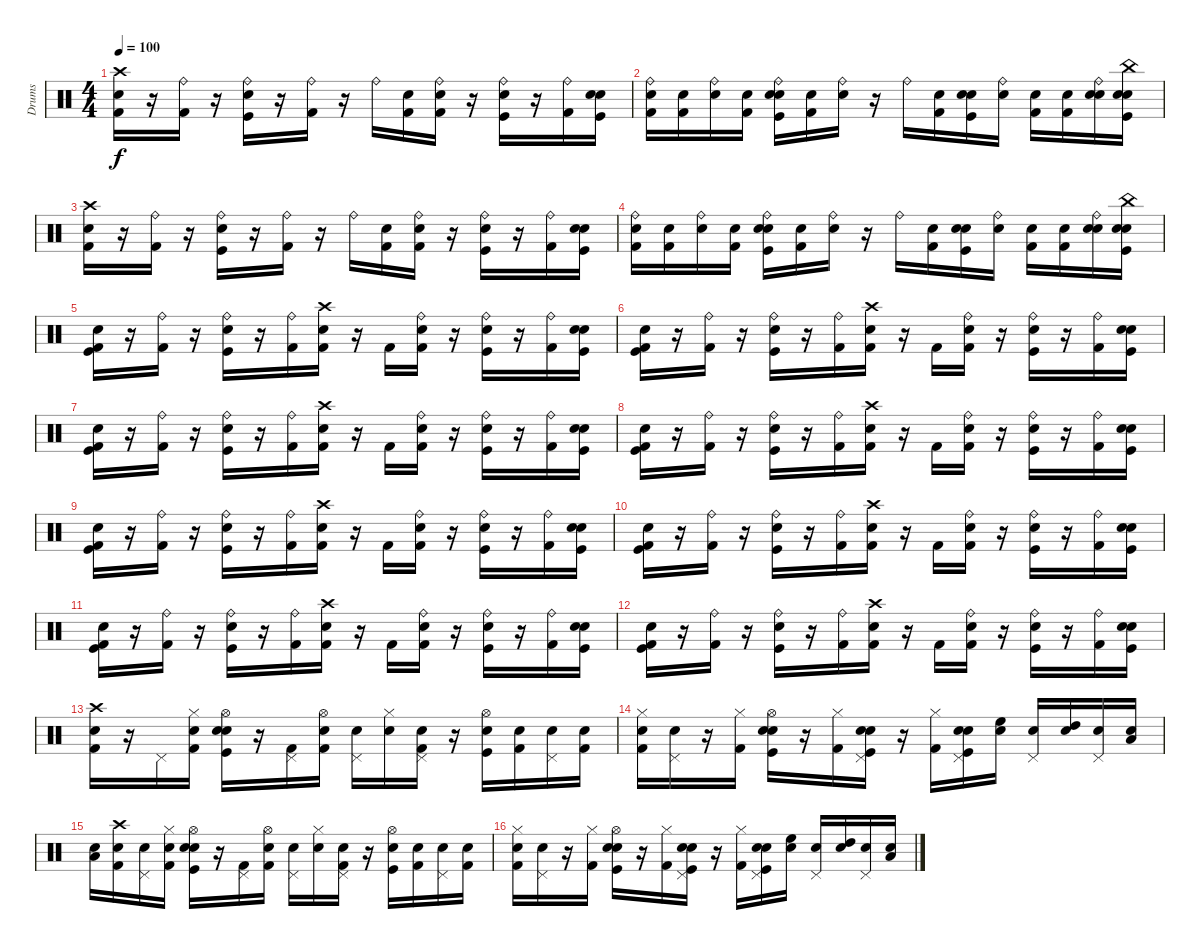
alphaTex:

\track ("Drums" "Drums") {instrument percussion}
\staff {score}
\articulation defaults
\ts (4 4)
\tempo 100
\clef neutral
\ks c
("Snare (hit)" "Kick (hit) 2" "Crash high (hit)").16{dy f} r.16 ("Ride (bell)" "Kick (hit) 2").16 r.16 ("Ride (bell)" "Kick (hit)" "Electric Snare (hit)").16 r.16 ("Ride (bell)" "Kick (hit) 2").16 r.16 "Ride (bell)".16 ("Snare (hit)" "Kick (hit) 2").16 ("Snare (hit)" "Kick (hit) 2" "Ride (bell)").16 r.16 ("Ride (bell)" "Kick (hit)" "Electric Snare (hit)").16 r.16 ("Ride (bell)" "Kick (hit) 2").16 ("Snare (hit)" "Kick (hit)" "Electric Snare (hit)").16 |
("Snare (hit)" "Kick (hit) 2" "Ride (bell)").16 ("Snare (hit)" "Kick (hit) 2").16 ("Snare (hit)" "Ride (bell)").16 ("Snare (hit)" "Kick (hit) 2").16 ("Snare (hit)" "Ride (bell)" "Kick (hit)" "Electric Snare (hit)").16 ("Snare (hit)" "Kick (hit) 2").16 ("Snare (hit)" "Ride (bell)").16 r.16 "Ride (bell)".16 ("Snare (hit)" "Kick (hit) 2").16 ("Snare (hit)" "Kick (hit)" "Electric Snare (hit)").16 ("Snare (hit)" "Ride (bell)").16 ("Snare (hit)" "Kick (hit) 2").16 ("Snare (hit)" "Kick (hit) 2").16 ("Snare (hit)" "Snare (hit) 2" "Ride (bell)").16 ("Snare (hit)" "Kick (hit)" "Electric Snare (hit)" "China (hit)").16 |
("Snare (hit)" "Kick (hit) 2" "Crash high (hit)").16 r.16 ("Ride (bell)" "Kick (hit) 2").16 r.16 ("Ride (bell)" "Kick (hit)" "Electric Snare (hit)").16 r.16 ("Ride (bell)" "Kick (hit) 2").16 r.16 "Ride (bell)".16 ("Snare (hit)" "Kick (hit) 2").16 ("Snare (hit)" "Kick (hit) 2" "Ride (bell)").16 r.16 ("Ride (bell)" "Kick (hit)" "Electric Snare (hit)").16 r.16 ("Ride (bell)" "Kick (hit) 2").16 ("Snare (hit)" "Kick (hit)" "Electric Snare (hit)").16 |
("Snare (hit)" "Kick (hit) 2" "Ride (bell)").16 ("Snare (hit)" "Kick (hit) 2").16 ("Snare (hit)" "Ride (bell)").16 ("Snare (hit)" "Kick (hit) 2").16 ("Snare (hit)" "Ride (bell)" "Kick (hit)" "Electric Snare (hit)").16 ("Snare (hit)" "Kick (hit) 2").16 ("Snare (hit)" "Ride (bell)").16 r.16 "Ride (bell)".16 ("Snare (hit)" "Kick (hit) 2").16 ("Snare (hit)" "Kick (hit)" "Electric Snare (hit)").16 ("Snare (hit)" "Ride (bell)").16 ("Snare (hit)" "Kick (hit) 2").16 ("Snare (hit)" "Kick (hit) 2").16 ("Snare (hit)" "Snare (hit) 2" "Ride (bell)").16 ("Snare (hit)" "Kick (hit)" "Electric Snare (hit)" "China (hit)").16 |
("Snare (hit)" "Kick (hit)" "Kick (hit) 2").16 r.16 ("Ride (bell)" "Kick (hit) 2").16 r.16 ("Ride (bell)" "Kick (hit)" "Electric Snare (hit)").16 r.16 ("Ride (bell)" "Kick (hit) 2").16 ("Snare (hit)" "Kick (hit) 2" "Crash high (hit)").16 r.16 "Kick (hit) 2".16 ("Snare (hit)" "Kick (hit) 2" "Ride (bell)").16 r.16 ("Ride (bell)" "Kick (hit)" "Electric Snare (hit)").16 r.16 ("Ride (bell)" "Kick (hit) 2").16 ("Snare (hit)" "Kick (hit)" "Electric Snare (hit)").16 |
("Snare (hit)" "Kick (hit)" "Kick (hit) 2").16 r.16 ("Ride (bell)" "Kick (hit) 2").16 r.16 ("Ride (bell)" "Kick (hit)" "Electric Snare (hit)").16 r.16 ("Ride (bell)" "Kick (hit) 2").16 ("Snare (hit)" "Kick (hit) 2" "Crash high (hit)").16 r.16 "Kick (hit) 2".16 ("Snare (hit)" "Kick (hit) 2" "Ride (bell)").16 r.16 ("Ride (bell)" "Kick (hit)" "Electric Snare (hit)").16 r.16 ("Ride (bell)" "Kick (hit) 2").16 ("Snare (hit)" "Kick (hit)" "Electric Snare (hit)").16 |
("Snare (hit)" "Kick (hit)" "Kick (hit) 2").16 r.16 ("Ride (bell)" "Kick (hit) 2").16 r.16 ("Ride (bell)" "Kick (hit)" "Electric Snare (hit)").16 r.16 ("Ride (bell)" "Kick (hit) 2").16 ("Snare (hit)" "Kick (hit) 2" "Crash high (hit)").16 r.16 "Kick (hit) 2".16 ("Snare (hit)" "Kick (hit) 2" "Ride (bell)").16 r.16 ("Ride (bell)" "Kick (hit)" "Electric Snare (hit)").16 r.16 ("Ride (bell)" "Kick (hit) 2").16 ("Snare (hit)" "Kick (hit)" "Electric Snare (hit)").16 |
("Snare (hit)" "Kick (hit)" "Kick (hit) 2").16 r.16 ("Ride (bell)" "Kick (hit) 2").16 r.16 ("Ride (bell)" "Kick (hit)" "Electric Snare (hit)").16 r.16 ("Ride (bell)" "Kick (hit) 2").16 ("Snare (hit)" "Kick (hit) 2" "Crash high (hit)").16 r.16 "Kick (hit) 2".16 ("Snare (hit)" "Kick (hit) 2" "Ride (bell)").16 r.16 ("Ride (bell)" "Kick (hit)" "Electric Snare (hit)").16 r.16 ("Ride (bell)" "Kick (hit) 2").16 ("Snare (hit)" "Kick (hit)" "Electric Snare (hit)").16 |
("Snare (hit)" "Kick (hit)" "Kick (hit) 2").16 r.16 ("Ride (bell)" "Kick (hit) 2").16 r.16 ("Ride (bell)" "Kick (hit)" "Electric Snare (hit)").16 r.16 ("Ride (bell)" "Kick (hit) 2").16 ("Snare (hit)" "Kick (hit) 2" "Crash high (hit)").16 r.16 "Kick (hit) 2".16 ("Snare (hit)" "Kick (hit) 2" "Ride (bell)").16 r.16 ("Ride (bell)" "Kick (hit)" "Electric Snare (hit)").16 r.16 ("Ride (bell)" "Kick (hit) 2").16 ("Snare (hit)" "Kick (hit)" "Electric Snare (hit)").16 |
("Snare (hit)" "Kick (hit)" "Kick (hit) 2").16 r.16 ("Ride (bell)" "Kick (hit) 2").16 r.16 ("Ride (bell)" "Kick (hit)" "Electric Snare (hit)").16 r.16 ("Ride (bell)" "Kick (hit) 2").16 ("Snare (hit)" "Kick (hit) 2" "Crash high (hit)").16 r.16 "Kick (hit) 2".16 ("Snare (hit)" "Kick (hit) 2" "Ride (bell)").16 r.16 ("Ride (bell)" "Kick (hit)" "Electric Snare (hit)").16 r.16 ("Ride (bell)" "Kick (hit) 2").16 ("Snare (hit)" "Kick (hit)" "Electric Snare (hit)").16 |
("Snare (hit)" "Kick (hit)" "Kick (hit) 2").16 r.16 ("Ride (bell)" "Kick (hit) 2").16 r.16 ("Ride (bell)" "Kick (hit)" "Electric Snare (hit)").16 r.16 ("Ride (bell)" "Kick (hit) 2").16 ("Snare (hit)" "Kick (hit) 2" "Crash high (hit)").16 r.16 "Kick (hit) 2".16 ("Snare (hit)" "Kick (hit) 2" "Ride (bell)").16 r.16 ("Ride (bell)" "Kick (hit)" "Electric Snare (hit)").16 r.16 ("Ride (bell)" "Kick (hit) 2").16 ("Snare (hit)" "Kick (hit)" "Electric Snare (hit)").16 |
("Snare (hit)" "Kick (hit)" "Kick (hit) 2").16 r.16 ("Ride (bell)" "Kick (hit) 2").16 r.16 ("Ride (bell)" "Kick (hit)" "Electric Snare (hit)").16 r.16 ("Ride (bell)" "Kick (hit) 2").16 ("Snare (hit)" "Kick (hit) 2" "Crash high (hit)").16 r.16 "Kick (hit) 2".16 ("Snare (hit)" "Kick (hit) 2" "Ride (bell)").16 r.16 ("Ride (bell)" "Kick (hit)" "Electric Snare (hit)").16 r.16 ("Ride (bell)" "Kick (hit) 2").16 ("Snare (hit)" "Kick (hit)" "Electric Snare (hit)").16 |
("Snare (hit)" "Crash high (hit)" "Kick (hit) 2").16 r.16 "Pedal Hi-Hat (hit)".16 ("Snare (hit)" "Kick (hit) 2" "Hi-Hat (closed)").16 ("Snare (hit)" "Kick (hit)" "Electric Snare (hit)" "Hi-Hat (open)").16 r.16 ("Kick (hit) 2" "Pedal Hi-Hat (hit)").16 ("Snare (hit)" "Kick (hit) 2" "Hi-Hat (open)").16 ("Snare (hit)" "Pedal Hi-Hat (hit)").16 ("Snare (hit)" "Hi-Hat (closed)").16 ("Snare (hit)" "Kick (hit) 2" "Pedal Hi-Hat (hit)").16 r.16 ("Hi-Hat (open)" "Kick (hit)" "Electric Snare (hit)").16 ("Snare (hit)" "Kick (hit) 2").16 ("Snare (hit)" "Pedal Hi-Hat (hit)").16 ("Snare (hit)" "Kick (hit) 2").16 |
("Snare (hit)" "Hi-Hat (closed)" "Kick (hit) 2").16 ("Snare (hit)" "Pedal Hi-Hat (hit)").16 r.16 ("Kick (hit) 2" "Hi-Hat (closed)").16 ("Snare (hit)" "Hi-Hat (open)" "Kick (hit)" "Electric Snare (hit)").16 r.16 ("Hi-Hat (closed)" "Kick (hit) 2").16 ("Snare (hit)" "Kick (hit)" "Electric Snare (hit)" "Pedal Hi-Hat (hit)").16 r.16 ("Hi-Hat (closed)" "Kick (hit) 2").16 ("Snare (hit)" "Pedal Hi-Hat (hit)" "Kick (hit)" "Electric Snare (hit)").16 ("Snare (hit)" "High Floor Tom (hit)").16 ("Snare (hit)" "Pedal Hi-Hat (hit)").16 ("Snare (hit)" "High Tom (hit)").16 ("Snare (hit)" "Pedal Hi-Hat (hit)").16 ("Snare (hit)" "Low Tom (hit)").16 |
("Snare (hit)" "Low Floor Tom (hit)").16 ("Snare (hit)" "Crash high (hit)" "Kick (hit) 2").16 ("Snare (hit)" "Pedal Hi-Hat (hit)").16 ("Snare (hit)" "Kick (hit) 2" "Hi-Hat (closed)").16 ("Snare (hit)" "Kick (hit)" "Electric Snare (hit)" "Hi-Hat (open)").16 r.16 ("Kick (hit) 2" "Pedal Hi-Hat (hit)").16 ("Snare (hit)" "Kick (hit) 2" "Hi-Hat (open)").16 ("Snare (hit)" "Pedal Hi-Hat (hit)").16 ("Snare (hit)" "Hi-Hat (closed)").16 ("Snare (hit)" "Kick (hit) 2" "Pedal Hi-Hat (hit)").16 r.16 ("Hi-Hat (open)" "Kick (hit)" "Electric Snare (hit)").16 ("Snare (hit)" "Kick (hit) 2").16 ("Snare (hit)" "Pedal Hi-Hat (hit)").16 ("Snare (hit)" "Kick (hit) 2").16 |
("Snare (hit)" "Hi-Hat (closed)" "Kick (hit) 2").16 ("Snare (hit)" "Pedal Hi-Hat (hit)").16 r.16 ("Kick (hit) 2" "Hi-Hat (closed)").16 ("Snare (hit)" "Hi-Hat (open)" "Kick (hit)" "Electric Snare (hit)").16 r.16 ("Hi-Hat (closed)" "Kick (hit) 2").16 ("Snare (hit)" "Kick (hit)" "Electric Snare (hit)" "Pedal Hi-Hat (hit)").16 r.16 ("Hi-Hat (closed)" "Kick (hit) 2").16 ("Snare (hit)" "Pedal Hi-Hat (hit)" "Kick (hit)" "Electric Snare (hit)").16 ("Snare (hit)" "High Floor Tom (hit)").16 ("Snare (hit)" "Pedal Hi-Hat (hit)").16 ("Snare (hit)" "High Tom (hit)").16 ("Snare (hit)" "Pedal Hi-Hat (hit)").16 ("Snare (hit)" "Low Tom (hit)").16
